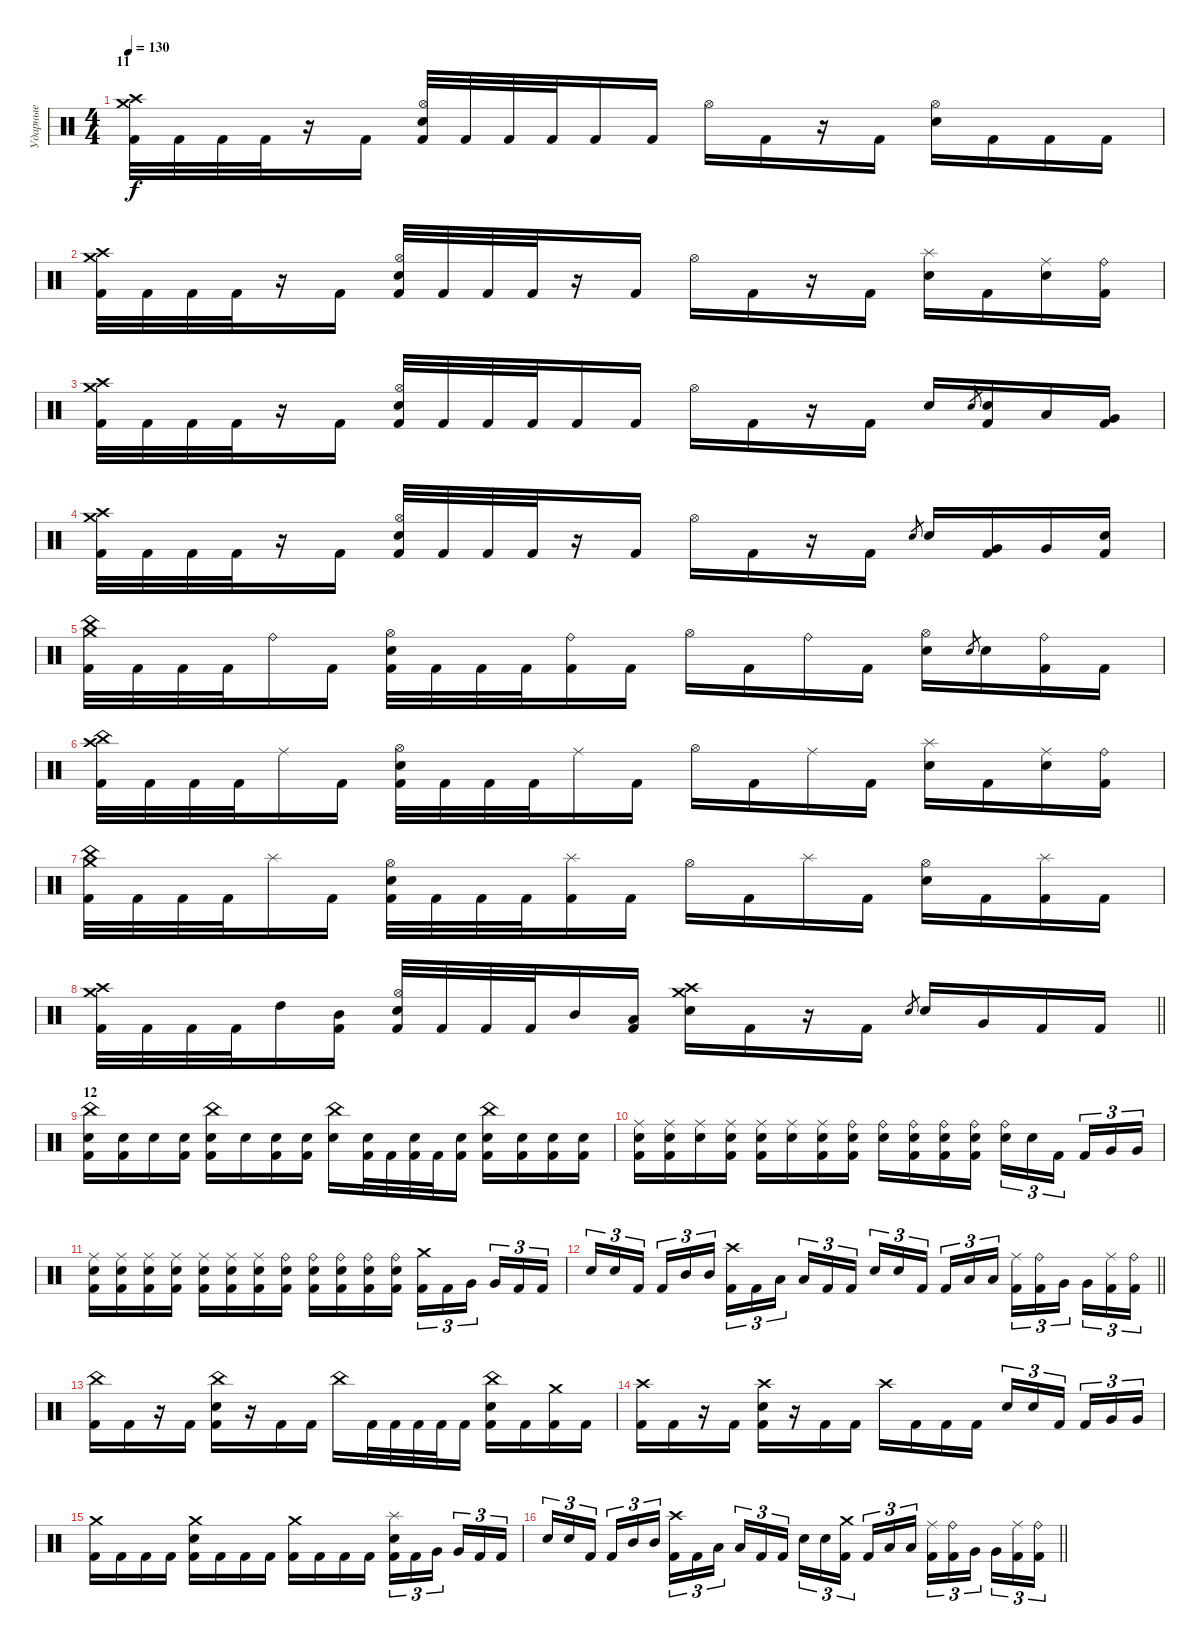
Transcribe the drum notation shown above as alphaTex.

\track ("Ударные" "Ударные") {instrument percussion}
\staff {score}
\articulation defaults
\ts (4 4)
\section ("" "11")
\tempo 130
\clef neutral
\ks c
("Crash medium (hit)" "Crash high (hit)" "Kick (hit) 2").32{dy f} "Kick (hit) 2".32 "Kick (hit) 2".32 "Kick (hit) 2".32 r.16 "Kick (hit) 2".16 ("Hi-Hat (open)" "Electric Snare (hit)" "Kick (hit) 2").32 "Kick (hit) 2".32 "Kick (hit) 2".32 "Kick (hit) 2".32 "Kick (hit) 2".16 "Kick (hit) 2".16 "Hi-Hat (open)".16 "Kick (hit) 2".16 r.16 "Kick (hit) 2".16 ("Hi-Hat (open)" "Electric Snare (hit)").16 "Kick (hit) 2".16 "Kick (hit) 2".16 "Kick (hit) 2".16 |
("Crash medium (hit)" "Crash high (hit)" "Kick (hit) 2").32 "Kick (hit) 2".32 "Kick (hit) 2".32 "Kick (hit) 2".32 r.16 "Kick (hit) 2".16 ("Hi-Hat (open)" "Electric Snare (hit)" "Kick (hit) 2").32 "Kick (hit) 2".32 "Kick (hit) 2".32 "Kick (hit) 2".32 r.16 "Kick (hit) 2".16 "Hi-Hat (open)".16 "Kick (hit) 2".16 r.16 "Kick (hit) 2".16 ("Splash (hit)" "Electric Snare (hit)").16 "Kick (hit) 2".16 ("Ride (middle)" "Electric Snare (hit)").16 ("Ride (bell)" "Kick (hit) 2").16 |
("Crash medium (hit)" "Crash high (hit)" "Kick (hit) 2").32 "Kick (hit) 2".32 "Kick (hit) 2".32 "Kick (hit) 2".32 r.16 "Kick (hit) 2".16 ("Hi-Hat (open)" "Electric Snare (hit)" "Kick (hit) 2").32 "Kick (hit) 2".32 "Kick (hit) 2".32 "Kick (hit) 2".32 "Kick (hit) 2".16 "Kick (hit) 2".16 "Hi-Hat (open)".16 "Kick (hit) 2".16 r.16 "Kick (hit) 2".16 "Electric Snare (hit)".16 "Electric Snare (hit)".8{gr} ("Electric Snare (hit)" "Kick (hit) 2").16 "Low Tom (hit)".16 ("Very Low Tom (hit)" "Kick (hit) 2").16 |
("Crash medium (hit)" "Crash high (hit)" "Kick (hit) 2").32 "Kick (hit) 2".32 "Kick (hit) 2".32 "Kick (hit) 2".32 r.16 "Kick (hit) 2".16 ("Hi-Hat (open)" "Electric Snare (hit)" "Kick (hit) 2").32 "Kick (hit) 2".32 "Kick (hit) 2".32 "Kick (hit) 2".32 r.16 "Kick (hit) 2".16 "Hi-Hat (open)".16 "Kick (hit) 2".16 r.16 "Kick (hit) 2".16 "Electric Snare (hit)".8{gr} "Electric Snare (hit)".16 ("Very Low Tom (hit)" "Kick (hit) 2").16 "Very Low Tom (hit)".16 ("Electric Snare (hit)" "Kick (hit) 2").16 |
("Crash medium (hit)" "China (hit)" "Kick (hit) 2").32 "Kick (hit) 2".32 "Kick (hit) 2".32 "Kick (hit) 2".32 "Ride (bell)".16 "Kick (hit) 2".16 ("Hi-Hat (open)" "Electric Snare (hit)" "Kick (hit) 2").32 "Kick (hit) 2".32 "Kick (hit) 2".32 "Kick (hit) 2".32 ("Ride (bell)" "Kick (hit) 2").16 "Kick (hit) 2".16 "Hi-Hat (open)".16 "Kick (hit) 2".16 "Ride (bell)".16 "Kick (hit) 2".16 ("Hi-Hat (open)" "Electric Snare (hit)").16 "Electric Snare (hit)".8{gr} "Electric Snare (hit)".16 ("Ride (bell)" "Kick (hit) 2").16 "Kick (hit) 2".16 |
("Crash high (hit)" "China (hit)" "Kick (hit) 2").32 "Kick (hit) 2".32 "Kick (hit) 2".32 "Kick (hit) 2".32 "Ride (middle)".16 "Kick (hit) 2".16 ("Hi-Hat (open)" "Electric Snare (hit)" "Kick (hit) 2").32 "Kick (hit) 2".32 "Kick (hit) 2".32 "Kick (hit) 2".32 "Ride (middle)".16 "Kick (hit) 2".16 "Hi-Hat (open)".16 "Kick (hit) 2".16 "Ride (middle)".16 "Kick (hit) 2".16 ("Splash (hit)" "Electric Snare (hit)").16 "Kick (hit) 2".16 ("Ride (middle)" "Electric Snare (hit)").16 ("Ride (bell)" "Kick (hit) 2").16 |
("Crash medium (hit)" "China (hit)" "Kick (hit) 2").32 "Kick (hit) 2".32 "Kick (hit) 2".32 "Kick (hit) 2".32 "Splash (hit)".16 "Kick (hit) 2".16 ("Hi-Hat (open)" "Electric Snare (hit)" "Kick (hit) 2").32 "Kick (hit) 2".32 "Kick (hit) 2".32 "Kick (hit) 2".32 ("Splash (hit)" "Kick (hit) 2").16 "Kick (hit) 2".16 "Hi-Hat (open)".16 "Kick (hit) 2".16 "Splash (hit)".16 "Kick (hit) 2".16 ("Hi-Hat (open)" "Electric Snare (hit)").16 "Kick (hit) 2".16 ("Splash (hit)" "Kick (hit) 2").16 "Kick (hit) 2".16 |
\barLineRight lightlight
("Crash medium (hit)" "Crash high (hit)" "Kick (hit) 2").32 "Kick (hit) 2".32 "Kick (hit) 2".32 "Kick (hit) 2".32 "High Tom (hit)".16 ("Mid Tom (hit)" "Kick (hit) 2").16 ("Hi-Hat (open)" "Electric Snare (hit)" "Kick (hit) 2").32 "Kick (hit) 2".32 "Kick (hit) 2".32 "Kick (hit) 2".32 "Mid Tom (hit)".16 ("Low Tom (hit)" "Kick (hit) 2").16 ("Crash medium (hit)" "Crash high (hit)" "Electric Snare (hit)").16 "Kick (hit) 2".16 r.16 "Kick (hit) 2".16 "Electric Snare (hit)".8{gr} "Electric Snare (hit)".16 "Very Low Tom (hit)".16 "Kick (hit) 2".16 "Kick (hit) 2".16 |
\section ("" "12")
("China (hit)" "Electric Snare (hit)" "Kick (hit) 2").16 ("Electric Snare (hit)" "Kick (hit) 2").16 "Electric Snare (hit)".16 ("Electric Snare (hit)" "Kick (hit) 2").16 ("China (hit)" "Electric Snare (hit)" "Kick (hit) 2").16 "Electric Snare (hit)".16 ("Electric Snare (hit)" "Kick (hit) 2").16 ("Electric Snare (hit)" "Kick (hit) 2").16 ("China (hit)" "Electric Snare (hit)").16 ("Electric Snare (hit)" "Kick (hit) 2").32 "Kick (hit) 2".32 ("Electric Snare (hit)" "Kick (hit) 2").32 "Kick (hit) 2".32 ("Electric Snare (hit)" "Kick (hit) 2").16 ("China (hit)" "Electric Snare (hit)" "Kick (hit) 2").16 ("Electric Snare (hit)" "Kick (hit) 2").16 ("Electric Snare (hit)" "Kick (hit) 2").16 ("Electric Snare (hit)" "Kick (hit) 2").16 |
("Ride (middle)" "Electric Snare (hit)" "Kick (hit) 2").16 ("Ride (middle)" "Electric Snare (hit)" "Kick (hit) 2").16 ("Ride (middle)" "Electric Snare (hit)").16 ("Ride (middle)" "Electric Snare (hit)" "Kick (hit) 2").16 ("Ride (middle)" "Electric Snare (hit)" "Kick (hit) 2").16 ("Ride (middle)" "Electric Snare (hit)").16 ("Ride (middle)" "Electric Snare (hit)" "Kick (hit) 2").16 ("Ride (bell)" "Electric Snare (hit)" "Kick (hit) 2").16 ("Ride (bell)" "Electric Snare (hit)").16 ("Ride (bell)" "Electric Snare (hit)" "Kick (hit) 2").16 ("Ride (bell)" "Electric Snare (hit)" "Kick (hit) 2").16 ("Ride (bell)" "Electric Snare (hit)" "Kick (hit) 2").16 ("Ride (bell)" "Electric Snare (hit)").16{tu (3 2)} "Electric Snare (hit)".16{tu (3 2)} "Kick (hit) 2".16{tu (3 2) beam splitsecondary} "Kick (hit) 2".16{tu (3 2)} "Very Low Tom (hit)".16{tu (3 2)} "Very Low Tom (hit)".16{tu (3 2)} |
("Ride (middle)" "Electric Snare (hit)" "Kick (hit) 2").16 ("Ride (middle)" "Electric Snare (hit)" "Kick (hit) 2").16 ("Ride (middle)" "Electric Snare (hit)" "Kick (hit) 2").16 ("Ride (middle)" "Electric Snare (hit)" "Kick (hit) 2").16 ("Ride (middle)" "Electric Snare (hit)" "Kick (hit) 2").16 ("Ride (middle)" "Electric Snare (hit)" "Kick (hit) 2").16 ("Ride (middle)" "Electric Snare (hit)" "Kick (hit) 2").16 ("Ride (bell)" "Electric Snare (hit)" "Kick (hit) 2").16 ("Ride (bell)" "Electric Snare (hit)" "Kick (hit) 2").16 ("Ride (bell)" "Electric Snare (hit)" "Kick (hit) 2").16 ("Ride (bell)" "Electric Snare (hit)" "Kick (hit) 2").16 ("Ride (bell)" "Electric Snare (hit)" "Kick (hit) 2").16 ("Crash medium (hit)" "Kick (hit) 2").16{tu (3 2)} "Kick (hit) 2".16{tu (3 2)} "Very Low Tom (hit)".16{tu (3 2) beam splitsecondary} "Very Low Tom (hit)".16{tu (3 2)} "Kick (hit) 2".16{tu (3 2)} "Kick (hit) 2".16{tu (3 2)} |
\barLineRight lightlight "Electric Snare (hit)".16{tu (3 2)} "Electric Snare (hit)".16{tu (3 2)} "Kick (hit) 2".16{tu (3 2) beam splitsecondary} "Kick (hit) 2".16{tu (3 2)} "Mid Tom (hit)".16{tu (3 2)} "Mid Tom (hit)".16{tu (3 2)}
("Crash high (hit)" "Kick (hit) 2").16{tu (3 2)} "Kick (hit) 2".16{tu (3 2)} "Low Tom (hit)".16{tu (3 2) beam splitsecondary} "Low Tom (hit)".16{tu (3 2)} "Kick (hit) 2".16{tu (3 2)} "Kick (hit) 2".16{tu (3 2)} "Electric Snare (hit)".16{tu (3 2)} "Electric Snare (hit)".16{tu (3 2)} "Kick (hit) 2".16{tu (3 2) beam splitsecondary} "Kick (hit) 2".16{tu (3 2)} "Low Tom (hit)".16{tu (3 2)} "Low Tom (hit)".16{tu (3 2)} ("Ride (middle)" "Kick (hit) 2").16{tu (3 2)} ("Ride (bell)" "Kick (hit) 2").16{tu (3 2)} "Very Low Tom (hit)".16{tu (3 2) beam splitsecondary} "Very Low Tom (hit)".16{tu (3 2)} ("Ride (middle)" "Kick (hit) 2").16{tu (3 2)} ("Ride (bell)" "Kick (hit) 2").16{tu (3 2)} |
("China (hit)" "Kick (hit) 2").16 "Kick (hit) 2".16 r.16 "Kick (hit) 2".16 ("China (hit)" "Electric Snare (hit)" "Kick (hit) 2").16 r.16 "Kick (hit) 2".16 "Kick (hit) 2".16 "China (hit)".16 "Kick (hit) 2".32 "Kick (hit) 2".32 "Kick (hit) 2".32 "Kick (hit) 2".32 "Kick (hit) 2".16 ("China (hit)" "Electric Snare (hit)" "Kick (hit) 2").16 "Kick (hit) 2".16 ("Crash medium (hit)" "Kick (hit) 2").16 "Kick (hit) 2".16 |
("Crash high (hit)" "Kick (hit) 2").16 "Kick (hit) 2".16 r.16 "Kick (hit) 2".16 ("Crash high (hit)" "Electric Snare (hit)" "Kick (hit) 2").16 r.16 "Kick (hit) 2".16 "Kick (hit) 2".16 "Crash high (hit)".16 "Kick (hit) 2".16 "Kick (hit) 2".16 "Kick (hit) 2".16 "Electric Snare (hit)".16{tu (3 2)} "Electric Snare (hit)".16{tu (3 2)} "Kick (hit) 2".16{tu (3 2) beam splitsecondary} "Kick (hit) 2".16{tu (3 2)} "Very Low Tom (hit)".16{tu (3 2)} "Very Low Tom (hit)".16{tu (3 2)} |
("Crash medium (hit)" "Kick (hit) 2").16 "Kick (hit) 2".16 "Kick (hit) 2".16 "Kick (hit) 2".16 ("Crash medium (hit)" "Electric Snare (hit)" "Kick (hit) 2").16 "Kick (hit) 2".16 "Kick (hit) 2".16 "Kick (hit) 2".16 ("Crash medium (hit)" "Kick (hit) 2").16 "Kick (hit) 2".16 "Kick (hit) 2".16 "Kick (hit) 2".16 ("Splash (hit)" "Electric Snare (hit)" "Kick (hit) 2").16{tu (3 2)} "Kick (hit) 2".16{tu (3 2)} "Very Low Tom (hit)".16{tu (3 2) beam splitsecondary} "Very Low Tom (hit)".16{tu (3 2)} "Kick (hit) 2".16{tu (3 2)} "Kick (hit) 2".16{tu (3 2)} |
\barLineRight lightlight "Electric Snare (hit)".16{tu (3 2)} "Electric Snare (hit)".16{tu (3 2)} "Kick (hit) 2".16{tu (3 2) beam splitsecondary} "Kick (hit) 2".16{tu (3 2)} "Mid Tom (hit)".16{tu (3 2)} "Mid Tom (hit)".16{tu (3 2)}
("Crash high (hit)" "Kick (hit) 2").16{tu (3 2)} "Kick (hit) 2".16{tu (3 2)} "Low Tom (hit)".16{tu (3 2) beam splitsecondary} "Low Tom (hit)".16{tu (3 2)} "Kick (hit) 2".16{tu (3 2)} "Kick (hit) 2".16{tu (3 2)} "Electric Snare (hit)".16{tu (3 2)} "Electric Snare (hit)".16{tu (3 2)} ("Crash medium (hit)" "Kick (hit) 2").16{tu (3 2) beam splitsecondary} "Kick (hit) 2".16{tu (3 2)} "Low Tom (hit)".16{tu (3 2)} "Low Tom (hit)".16{tu (3 2)} ("Ride (middle)" "Kick (hit) 2").16{tu (3 2)} ("Ride (bell)" "Kick (hit) 2").16{tu (3 2)} "Very Low Tom (hit)".16{tu (3 2) beam splitsecondary} "Very Low Tom (hit)".16{tu (3 2)} ("Ride (middle)" "Kick (hit) 2").16{tu (3 2)} ("Ride (bell)" "Kick (hit) 2").16{tu (3 2)}
